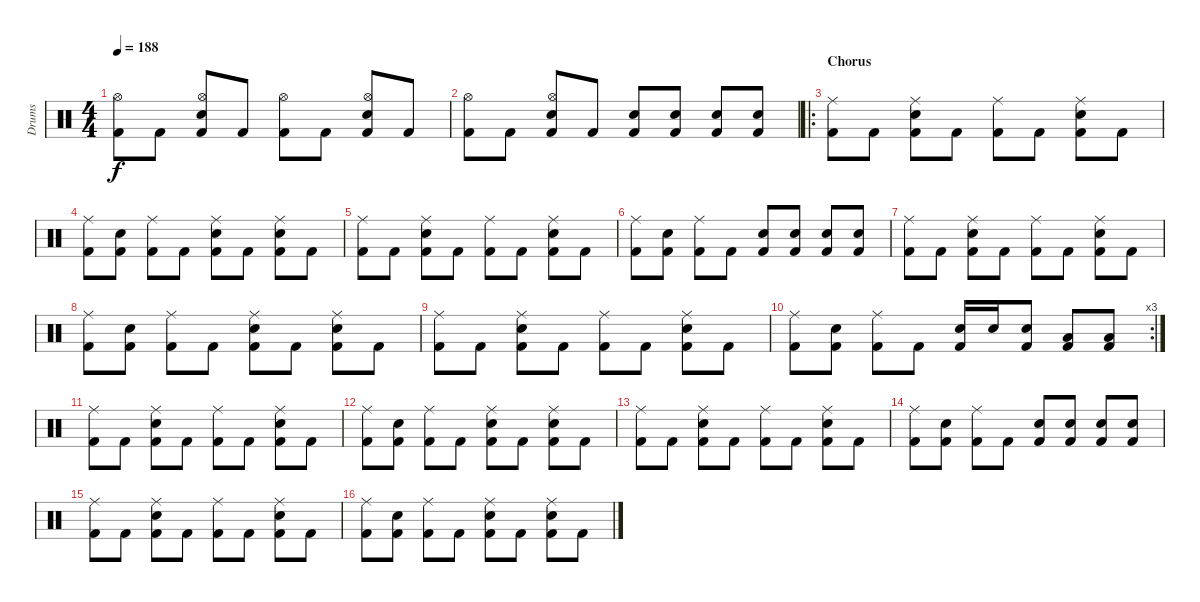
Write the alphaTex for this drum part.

\track ("Drums" "Drums") {instrument percussion}
\staff {score}
\articulation defaults
\ts (4 4)
\tempo 188
\clef neutral
\ks c
("Kick (hit) 2" "Hi-Hat (open)").8{dy f} "Kick (hit) 2".8 ("Kick (hit) 2" "Snare (hit) 2" "Hi-Hat (open)").8 "Kick (hit) 2".8 ("Kick (hit) 2" "Hi-Hat (open)").8 "Kick (hit) 2".8 ("Kick (hit) 2" "Snare (hit) 2" "Hi-Hat (open)").8 "Kick (hit) 2".8 |
("Kick (hit) 2" "Hi-Hat (open)").8 "Kick (hit) 2".8 ("Kick (hit) 2" "Snare (hit) 2" "Hi-Hat (open)").8 "Kick (hit) 2".8 ("Kick (hit) 2" "Snare (hit) 2").8 ("Kick (hit) 2" "Snare (hit) 2").8 ("Kick (hit) 2" "Snare (hit) 2").8 ("Kick (hit) 2" "Snare (hit) 2").8 |
\ro
\section ("" "Chorus")
("Kick (hit) 2" "Ride (middle)").8 "Kick (hit) 2".8 ("Kick (hit) 2" "Snare (hit) 2" "Ride (middle)").8 "Kick (hit) 2".8 ("Kick (hit) 2" "Ride (middle)").8 "Kick (hit) 2".8 ("Kick (hit) 2" "Snare (hit) 2" "Ride (middle)").8 "Kick (hit) 2".8 |
("Kick (hit) 2" "Ride (middle)").8 ("Kick (hit) 2" "Snare (hit) 2").8 ("Kick (hit) 2" "Ride (middle)").8 "Kick (hit) 2".8 ("Kick (hit) 2" "Snare (hit) 2" "Ride (middle)").8 "Kick (hit) 2".8 ("Kick (hit) 2" "Snare (hit) 2" "Ride (middle)").8 "Kick (hit) 2".8 |
("Kick (hit) 2" "Ride (middle)").8 "Kick (hit) 2".8 ("Kick (hit) 2" "Snare (hit) 2" "Ride (middle)").8 "Kick (hit) 2".8 ("Kick (hit) 2" "Ride (middle)").8 "Kick (hit) 2".8 ("Kick (hit) 2" "Snare (hit) 2" "Ride (middle)").8 "Kick (hit) 2".8 |
("Kick (hit) 2" "Ride (middle)").8 ("Kick (hit) 2" "Snare (hit) 2").8 ("Kick (hit) 2" "Ride (middle)").8 "Kick (hit) 2".8 ("Kick (hit) 2" "Snare (hit) 2").8 ("Kick (hit) 2" "Snare (hit) 2").8 ("Kick (hit) 2" "Snare (hit) 2").8 ("Kick (hit) 2" "Snare (hit) 2").8 |
("Kick (hit) 2" "Ride (middle)").8 "Kick (hit) 2".8 ("Kick (hit) 2" "Snare (hit) 2" "Ride (middle)").8 "Kick (hit) 2".8 ("Kick (hit) 2" "Ride (middle)").8 "Kick (hit) 2".8 ("Kick (hit) 2" "Snare (hit) 2" "Ride (middle)").8 "Kick (hit) 2".8 |
("Kick (hit) 2" "Ride (middle)").8 ("Kick (hit) 2" "Snare (hit) 2").8 ("Kick (hit) 2" "Ride (middle)").8 "Kick (hit) 2".8 ("Kick (hit) 2" "Snare (hit) 2" "Ride (middle)").8 "Kick (hit) 2".8 ("Kick (hit) 2" "Snare (hit) 2" "Ride (middle)").8 "Kick (hit) 2".8 |
("Kick (hit) 2" "Ride (middle)").8 "Kick (hit) 2".8 ("Kick (hit) 2" "Snare (hit) 2" "Ride (middle)").8 "Kick (hit) 2".8 ("Kick (hit) 2" "Ride (middle)").8 "Kick (hit) 2".8 ("Kick (hit) 2" "Snare (hit) 2" "Ride (middle)").8 "Kick (hit) 2".8 |
\rc 3
("Kick (hit) 2" "Ride (middle)").8 ("Kick (hit) 2" "Snare (hit) 2").8 ("Kick (hit) 2" "Ride (middle)").8 "Kick (hit) 2".8 ("Kick (hit) 2" "Snare (hit) 2").16 "Snare (hit) 2".16 ("Kick (hit) 2" "Snare (hit) 2").8 ("Kick (hit) 2" "Low Tom (hit)").8 ("Kick (hit) 2" "Low Tom (hit)").8 |
("Kick (hit) 2" "Ride (middle)").8 "Kick (hit) 2".8 ("Kick (hit) 2" "Snare (hit) 2" "Ride (middle)").8 "Kick (hit) 2".8 ("Kick (hit) 2" "Ride (middle)").8 "Kick (hit) 2".8 ("Kick (hit) 2" "Snare (hit) 2" "Ride (middle)").8 "Kick (hit) 2".8 |
("Kick (hit) 2" "Ride (middle)").8 ("Kick (hit) 2" "Snare (hit) 2").8 ("Kick (hit) 2" "Ride (middle)").8 "Kick (hit) 2".8 ("Kick (hit) 2" "Snare (hit) 2" "Ride (middle)").8 "Kick (hit) 2".8 ("Kick (hit) 2" "Snare (hit) 2" "Ride (middle)").8 "Kick (hit) 2".8 |
("Kick (hit) 2" "Ride (middle)").8 "Kick (hit) 2".8 ("Kick (hit) 2" "Snare (hit) 2" "Ride (middle)").8 "Kick (hit) 2".8 ("Kick (hit) 2" "Ride (middle)").8 "Kick (hit) 2".8 ("Kick (hit) 2" "Snare (hit) 2" "Ride (middle)").8 "Kick (hit) 2".8 |
("Kick (hit) 2" "Ride (middle)").8 ("Kick (hit) 2" "Snare (hit) 2").8 ("Kick (hit) 2" "Ride (middle)").8 "Kick (hit) 2".8 ("Kick (hit) 2" "Snare (hit) 2").8 ("Kick (hit) 2" "Snare (hit) 2").8 ("Kick (hit) 2" "Snare (hit) 2").8 ("Kick (hit) 2" "Snare (hit) 2").8 |
("Kick (hit) 2" "Ride (middle)").8 "Kick (hit) 2".8 ("Kick (hit) 2" "Snare (hit) 2" "Ride (middle)").8 "Kick (hit) 2".8 ("Kick (hit) 2" "Ride (middle)").8 "Kick (hit) 2".8 ("Kick (hit) 2" "Snare (hit) 2" "Ride (middle)").8 "Kick (hit) 2".8 |
("Kick (hit) 2" "Ride (middle)").8 ("Kick (hit) 2" "Snare (hit) 2").8 ("Kick (hit) 2" "Ride (middle)").8 "Kick (hit) 2".8 ("Kick (hit) 2" "Snare (hit) 2" "Ride (middle)").8 "Kick (hit) 2".8 ("Kick (hit) 2" "Snare (hit) 2" "Ride (middle)").8 "Kick (hit) 2".8
